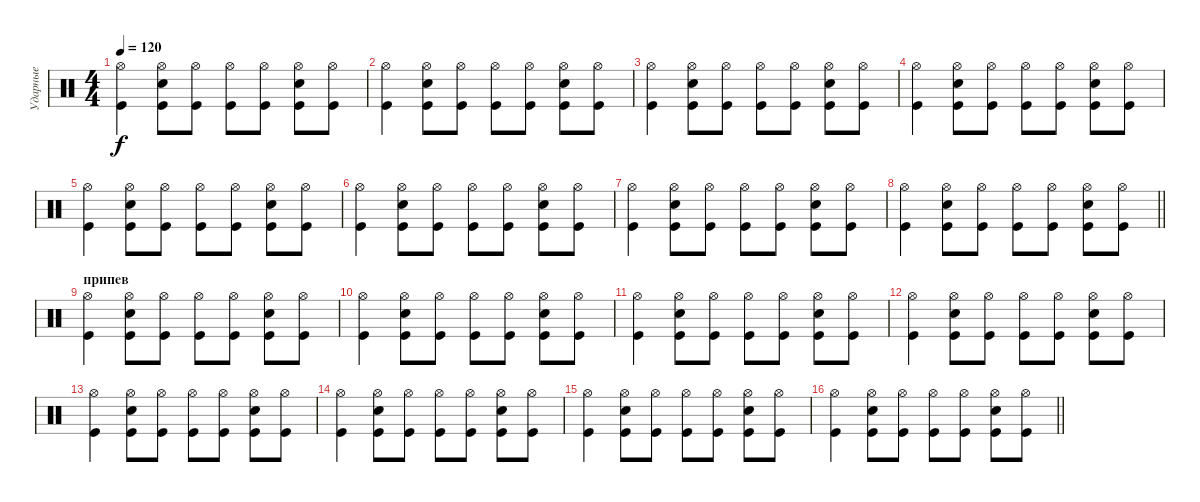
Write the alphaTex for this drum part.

\track ("Ударные" "Ударные") {instrument percussion}
\staff {score}
\articulation defaults
\ts (4 4)
\tempo 120
\clef neutral
\ks c
("Hi-Hat (open)" "Kick (hit)").4{dy f} ("Hi-Hat (open)" "Snare (hit) 2" "Kick (hit)").8 ("Hi-Hat (open)" "Kick (hit)").8 ("Hi-Hat (open)" "Kick (hit)").8 ("Hi-Hat (open)" "Kick (hit)").8 ("Hi-Hat (open)" "Snare (hit) 2" "Kick (hit)").8 ("Hi-Hat (open)" "Kick (hit)").8 |
("Hi-Hat (open)" "Kick (hit)").4 ("Hi-Hat (open)" "Snare (hit) 2" "Kick (hit)").8 ("Hi-Hat (open)" "Kick (hit)").8 ("Hi-Hat (open)" "Kick (hit)").8 ("Hi-Hat (open)" "Kick (hit)").8 ("Hi-Hat (open)" "Snare (hit) 2" "Kick (hit)").8 ("Hi-Hat (open)" "Kick (hit)").8 |
("Hi-Hat (open)" "Kick (hit)").4 ("Hi-Hat (open)" "Snare (hit) 2" "Kick (hit)").8 ("Hi-Hat (open)" "Kick (hit)").8 ("Hi-Hat (open)" "Kick (hit)").8 ("Hi-Hat (open)" "Kick (hit)").8 ("Hi-Hat (open)" "Snare (hit) 2" "Kick (hit)").8 ("Hi-Hat (open)" "Kick (hit)").8 |
("Hi-Hat (open)" "Kick (hit)").4 ("Hi-Hat (open)" "Snare (hit) 2" "Kick (hit)").8 ("Hi-Hat (open)" "Kick (hit)").8 ("Hi-Hat (open)" "Kick (hit)").8 ("Hi-Hat (open)" "Kick (hit)").8 ("Hi-Hat (open)" "Snare (hit) 2" "Kick (hit)").8 ("Hi-Hat (open)" "Kick (hit)").8 |
("Hi-Hat (open)" "Kick (hit)").4 ("Hi-Hat (open)" "Snare (hit) 2" "Kick (hit)").8 ("Hi-Hat (open)" "Kick (hit)").8 ("Hi-Hat (open)" "Kick (hit)").8 ("Hi-Hat (open)" "Kick (hit)").8 ("Hi-Hat (open)" "Snare (hit) 2" "Kick (hit)").8 ("Hi-Hat (open)" "Kick (hit)").8 |
("Hi-Hat (open)" "Kick (hit)").4 ("Hi-Hat (open)" "Snare (hit) 2" "Kick (hit)").8 ("Hi-Hat (open)" "Kick (hit)").8 ("Hi-Hat (open)" "Kick (hit)").8 ("Hi-Hat (open)" "Kick (hit)").8 ("Hi-Hat (open)" "Snare (hit) 2" "Kick (hit)").8 ("Hi-Hat (open)" "Kick (hit)").8 |
("Hi-Hat (open)" "Kick (hit)").4 ("Hi-Hat (open)" "Snare (hit) 2" "Kick (hit)").8 ("Hi-Hat (open)" "Kick (hit)").8 ("Hi-Hat (open)" "Kick (hit)").8 ("Hi-Hat (open)" "Kick (hit)").8 ("Hi-Hat (open)" "Snare (hit) 2" "Kick (hit)").8 ("Hi-Hat (open)" "Kick (hit)").8 |
\barLineRight lightlight
("Hi-Hat (open)" "Kick (hit)").4 ("Hi-Hat (open)" "Snare (hit) 2" "Kick (hit)").8 ("Hi-Hat (open)" "Kick (hit)").8 ("Hi-Hat (open)" "Kick (hit)").8 ("Hi-Hat (open)" "Kick (hit)").8 ("Hi-Hat (open)" "Snare (hit) 2" "Kick (hit)").8 ("Hi-Hat (open)" "Kick (hit)").8 |
\section ("" "припев")
("Hi-Hat (open)" "Kick (hit)").4 ("Hi-Hat (open)" "Snare (hit) 2" "Kick (hit)").8 ("Hi-Hat (open)" "Kick (hit)").8 ("Hi-Hat (open)" "Kick (hit)").8 ("Hi-Hat (open)" "Kick (hit)").8 ("Hi-Hat (open)" "Snare (hit) 2" "Kick (hit)").8 ("Hi-Hat (open)" "Kick (hit)").8 |
("Hi-Hat (open)" "Kick (hit)").4 ("Hi-Hat (open)" "Snare (hit) 2" "Kick (hit)").8 ("Hi-Hat (open)" "Kick (hit)").8 ("Hi-Hat (open)" "Kick (hit)").8 ("Hi-Hat (open)" "Kick (hit)").8 ("Hi-Hat (open)" "Snare (hit) 2" "Kick (hit)").8 ("Hi-Hat (open)" "Kick (hit)").8 |
("Hi-Hat (open)" "Kick (hit)").4 ("Hi-Hat (open)" "Snare (hit) 2" "Kick (hit)").8 ("Hi-Hat (open)" "Kick (hit)").8 ("Hi-Hat (open)" "Kick (hit)").8 ("Hi-Hat (open)" "Kick (hit)").8 ("Hi-Hat (open)" "Snare (hit) 2" "Kick (hit)").8 ("Hi-Hat (open)" "Kick (hit)").8 |
("Hi-Hat (open)" "Kick (hit)").4 ("Hi-Hat (open)" "Snare (hit) 2" "Kick (hit)").8 ("Hi-Hat (open)" "Kick (hit)").8 ("Hi-Hat (open)" "Kick (hit)").8 ("Hi-Hat (open)" "Kick (hit)").8 ("Hi-Hat (open)" "Snare (hit) 2" "Kick (hit)").8 ("Hi-Hat (open)" "Kick (hit)").8 |
("Hi-Hat (open)" "Kick (hit)").4 ("Hi-Hat (open)" "Snare (hit) 2" "Kick (hit)").8 ("Hi-Hat (open)" "Kick (hit)").8 ("Hi-Hat (open)" "Kick (hit)").8 ("Hi-Hat (open)" "Kick (hit)").8 ("Hi-Hat (open)" "Snare (hit) 2" "Kick (hit)").8 ("Hi-Hat (open)" "Kick (hit)").8 |
("Hi-Hat (open)" "Kick (hit)").4 ("Hi-Hat (open)" "Snare (hit) 2" "Kick (hit)").8 ("Hi-Hat (open)" "Kick (hit)").8 ("Hi-Hat (open)" "Kick (hit)").8 ("Hi-Hat (open)" "Kick (hit)").8 ("Hi-Hat (open)" "Snare (hit) 2" "Kick (hit)").8 ("Hi-Hat (open)" "Kick (hit)").8 |
("Hi-Hat (open)" "Kick (hit)").4 ("Hi-Hat (open)" "Snare (hit) 2" "Kick (hit)").8 ("Hi-Hat (open)" "Kick (hit)").8 ("Hi-Hat (open)" "Kick (hit)").8 ("Hi-Hat (open)" "Kick (hit)").8 ("Hi-Hat (open)" "Snare (hit) 2" "Kick (hit)").8 ("Hi-Hat (open)" "Kick (hit)").8 |
\barLineRight lightlight
("Hi-Hat (open)" "Kick (hit)").4 ("Hi-Hat (open)" "Snare (hit) 2" "Kick (hit)").8 ("Hi-Hat (open)" "Kick (hit)").8 ("Hi-Hat (open)" "Kick (hit)").8 ("Hi-Hat (open)" "Kick (hit)").8 ("Hi-Hat (open)" "Snare (hit) 2" "Kick (hit)").8 ("Hi-Hat (open)" "Kick (hit)").8
